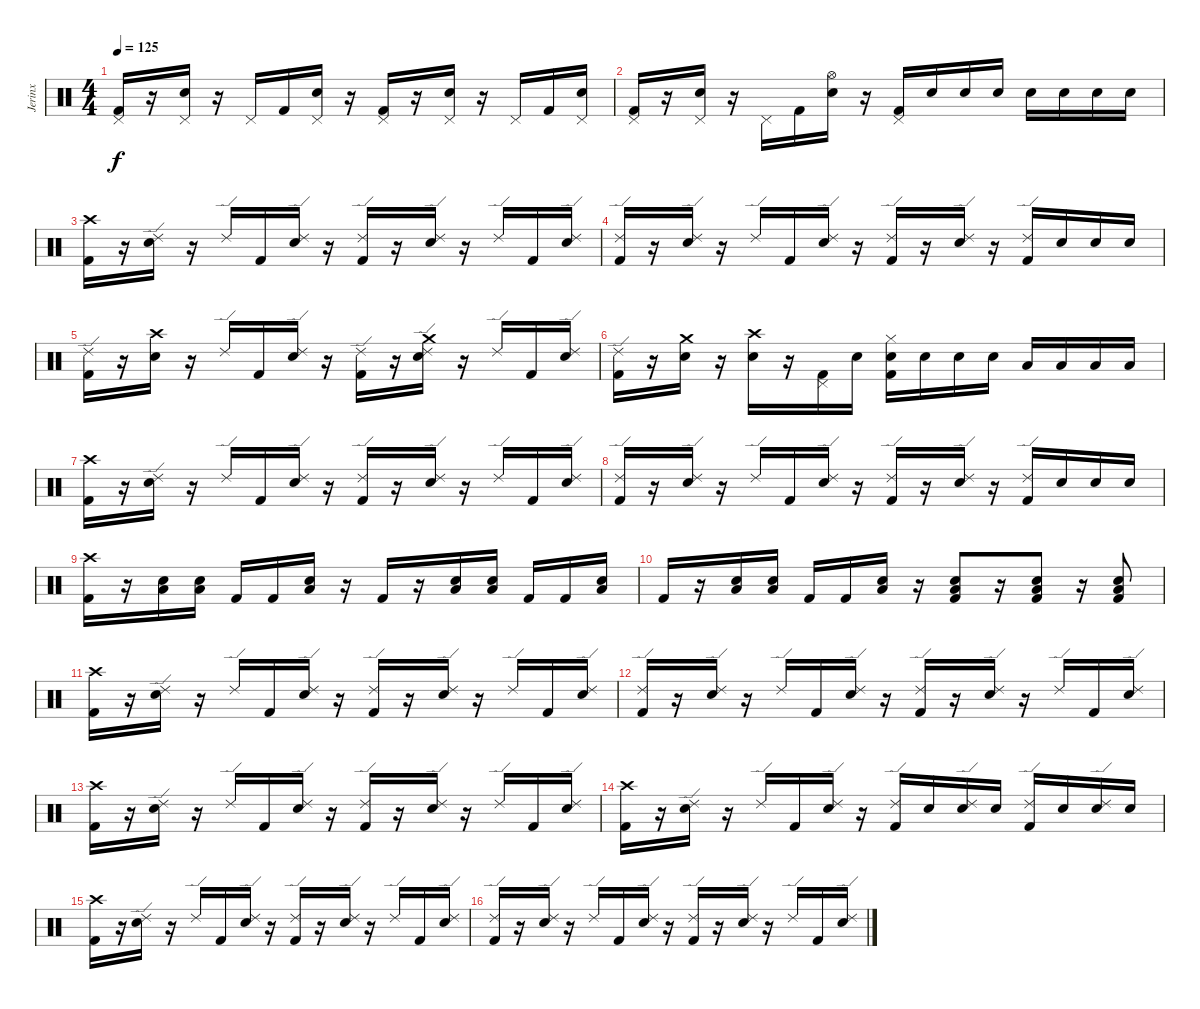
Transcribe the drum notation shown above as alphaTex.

\track ("Jerinx" "Jerinx") {instrument percussion}
\staff {score}
\articulation defaults
\ts (4 4)
\tempo 125
\clef neutral
\ks c
("Kick (hit) 2" "Pedal Hi-Hat (hit)").16{dy f} r.16 ("Electric Snare (hit)" "Pedal Hi-Hat (hit)").16 r.16 "Pedal Hi-Hat (hit)".16 "Kick (hit) 2".16 ("Electric Snare (hit)" "Pedal Hi-Hat (hit)").16 r.16 ("Kick (hit) 2" "Pedal Hi-Hat (hit)").16 r.16 ("Electric Snare (hit)" "Pedal Hi-Hat (hit)").16 r.16 "Pedal Hi-Hat (hit)".16 "Kick (hit) 2".16 ("Electric Snare (hit)" "Pedal Hi-Hat (hit)").16 |
("Kick (hit) 2" "Pedal Hi-Hat (hit)").16 r.16 ("Electric Snare (hit)" "Pedal Hi-Hat (hit)").16 r.16 "Pedal Hi-Hat (hit)".16 "Kick (hit) 2".16 ("Electric Snare (hit)" "Hi-Hat (open)").16 r.16 ("Kick (hit) 2" "Pedal Hi-Hat (hit)").16 "Electric Snare (hit)".16 "Electric Snare (hit)".16 "Electric Snare (hit)".16 "Electric Snare (hit)".16 "Electric Snare (hit)".16 "Electric Snare (hit)".16 "Electric Snare (hit)".16 |
("Kick (hit) 2" "Crash high (hit)").16 r.16 ("Electric Snare (hit)" "Ride (edge) 2").16 r.16 "Ride (edge) 2".16 "Kick (hit) 2".16 ("Electric Snare (hit)" "Ride (edge) 2").16 r.16 ("Kick (hit) 2" "Ride (edge) 2").16 r.16 ("Electric Snare (hit)" "Ride (edge) 2").16 r.16 "Ride (edge) 2".16 "Kick (hit) 2".16 ("Electric Snare (hit)" "Ride (edge) 2").16 |
("Kick (hit) 2" "Ride (edge) 2").16 r.16 ("Electric Snare (hit)" "Ride (edge) 2").16 r.16 "Ride (edge) 2".16 "Kick (hit) 2".16 ("Electric Snare (hit)" "Ride (edge) 2").16 r.16 ("Kick (hit) 2" "Ride (edge) 2").16 r.16 ("Electric Snare (hit)" "Ride (edge) 2").16 r.16 ("Kick (hit) 2" "Ride (edge) 2").16 "Electric Snare (hit)".16 "Electric Snare (hit)".16 "Electric Snare (hit)".16 |
("Kick (hit) 2" "Ride (edge) 2").16 r.16 ("Electric Snare (hit)" "Crash high (hit)").16 r.16 "Ride (edge) 2".16 "Kick (hit) 2".16 ("Electric Snare (hit)" "Ride (edge) 2").16 r.16 ("Kick (hit) 2" "Ride (edge) 2").16 r.16 ("Electric Snare (hit)" "Ride (edge) 2" "Crash medium (hit)").16 r.16 "Ride (edge) 2".16 "Kick (hit) 2".16 ("Electric Snare (hit)" "Ride (edge) 2").16 |
("Kick (hit) 2" "Ride (edge) 2").16 r.16 ("Electric Snare (hit)" "Crash medium (hit)").16 r.16 ("Electric Snare (hit)" "Crash high (hit)").16 r.16 ("Kick (hit) 2" "Pedal Hi-Hat (hit)").16 "Electric Snare (hit)".16 ("Kick (hit) 2" "Electric Snare (hit)" "Hi-Hat (closed)").16 "Electric Snare (hit)".16 "Electric Snare (hit)".16 "Electric Snare (hit)".16 "Low Tom (hit)".16 "Low Tom (hit)".16 "Low Floor Tom (hit)".16 "Low Floor Tom (hit)".16 |
("Kick (hit) 2" "Crash high (hit)").16 r.16 ("Electric Snare (hit)" "Ride (edge) 2").16 r.16 "Ride (edge) 2".16 "Kick (hit) 2".16 ("Electric Snare (hit)" "Ride (edge) 2").16 r.16 ("Kick (hit) 2" "Ride (edge) 2").16 r.16 ("Electric Snare (hit)" "Ride (edge) 2").16 r.16 "Ride (edge) 2".16 "Kick (hit) 2".16 ("Electric Snare (hit)" "Ride (edge) 2").16 |
("Kick (hit) 2" "Ride (edge) 2").16 r.16 ("Electric Snare (hit)" "Ride (edge) 2").16 r.16 "Ride (edge) 2".16 "Kick (hit) 2".16 ("Electric Snare (hit)" "Ride (edge) 2").16 r.16 ("Kick (hit) 2" "Ride (edge) 2").16 r.16 ("Electric Snare (hit)" "Ride (edge) 2").16 r.16 ("Kick (hit) 2" "Ride (edge) 2").16 "Electric Snare (hit)".16 "Electric Snare (hit)".16 "Electric Snare (hit)".16 |
("Kick (hit) 2" "Crash high (hit)").16 r.16 ("Electric Snare (hit)" "Low Floor Tom (hit)").16 ("Electric Snare (hit)" "Low Floor Tom (hit)").16 "Kick (hit) 2".16 "Kick (hit) 2".16 ("Electric Snare (hit)" "Low Floor Tom (hit)").16 r.16 "Kick (hit) 2".16 r.16 ("Electric Snare (hit)" "Low Floor Tom (hit)").16 ("Electric Snare (hit)" "Low Floor Tom (hit)").16 "Kick (hit) 2".16 "Kick (hit) 2".16 ("Electric Snare (hit)" "Low Floor Tom (hit)").16 |
"Kick (hit) 2".16 r.16 ("Electric Snare (hit)" "Low Floor Tom (hit)").16 ("Electric Snare (hit)" "Low Floor Tom (hit)").16 "Kick (hit) 2".16 "Kick (hit) 2".16 ("Electric Snare (hit)" "Low Floor Tom (hit)").16 r.16 ("Kick (hit) 2" "Electric Snare (hit)" "Low Floor Tom (hit)").8 r.16 ("Kick (hit) 2" "Electric Snare (hit)" "Low Floor Tom (hit)").8 r.16 ("Kick (hit) 2" "Electric Snare (hit)" "Low Floor Tom (hit)").8 |
("Kick (hit) 2" "Crash high (hit)").16 r.16 ("Electric Snare (hit)" "Ride (edge) 2").16 r.16 "Ride (edge) 2".16 "Kick (hit) 2".16 ("Electric Snare (hit)" "Ride (edge) 2").16 r.16 ("Kick (hit) 2" "Ride (edge) 2").16 r.16 ("Electric Snare (hit)" "Ride (edge) 2").16 r.16 "Ride (edge) 2".16 "Kick (hit) 2".16 ("Electric Snare (hit)" "Ride (edge) 2").16 |
("Kick (hit) 2" "Ride (edge) 2").16 r.16 ("Electric Snare (hit)" "Ride (edge) 2").16 r.16 "Ride (edge) 2".16 "Kick (hit) 2".16 ("Electric Snare (hit)" "Ride (edge) 2").16 r.16 ("Kick (hit) 2" "Ride (edge) 2").16 r.16 ("Electric Snare (hit)" "Ride (edge) 2").16 r.16 "Ride (edge) 2".16 "Kick (hit) 2".16 ("Electric Snare (hit)" "Ride (edge) 2").16 |
("Kick (hit) 2" "Crash high (hit)").16 r.16 ("Electric Snare (hit)" "Ride (edge) 2").16 r.16 "Ride (edge) 2".16 "Kick (hit) 2".16 ("Electric Snare (hit)" "Ride (edge) 2").16 r.16 ("Kick (hit) 2" "Ride (edge) 2").16 r.16 ("Electric Snare (hit)" "Ride (edge) 2").16 r.16 "Ride (edge) 2".16 "Kick (hit) 2".16 ("Electric Snare (hit)" "Ride (edge) 2").16 |
("Kick (hit) 2" "Crash high (hit)").16 r.16 ("Electric Snare (hit)" "Ride (edge) 2").16 r.16 "Ride (edge) 2".16 "Kick (hit) 2".16 ("Electric Snare (hit)" "Ride (edge) 2").16 r.16 ("Kick (hit) 2" "Ride (edge) 2").16 "Electric Snare (hit)".16 ("Electric Snare (hit)" "Ride (edge) 2").16 "Electric Snare (hit)".16 ("Kick (hit) 2" "Ride (edge) 2").16 "Electric Snare (hit)".16 ("Electric Snare (hit)" "Ride (edge) 2").16 "Electric Snare (hit)".16 |
("Kick (hit) 2" "Crash high (hit)").16 r.16 ("Electric Snare (hit)" "Ride (edge) 2").16 r.16 "Ride (edge) 2".16 "Kick (hit) 2".16 ("Electric Snare (hit)" "Ride (edge) 2").16 r.16 ("Kick (hit) 2" "Ride (edge) 2").16 r.16 ("Electric Snare (hit)" "Ride (edge) 2").16 r.16 "Ride (edge) 2".16 "Kick (hit) 2".16 ("Electric Snare (hit)" "Ride (edge) 2").16 |
("Kick (hit) 2" "Ride (edge) 2").16 r.16 ("Electric Snare (hit)" "Ride (edge) 2").16 r.16 "Ride (edge) 2".16 "Kick (hit) 2".16 ("Electric Snare (hit)" "Ride (edge) 2").16 r.16 ("Kick (hit) 2" "Ride (edge) 2").16 r.16 ("Electric Snare (hit)" "Ride (edge) 2").16 r.16 "Ride (edge) 2".16 "Kick (hit) 2".16 ("Electric Snare (hit)" "Ride (edge) 2").16
